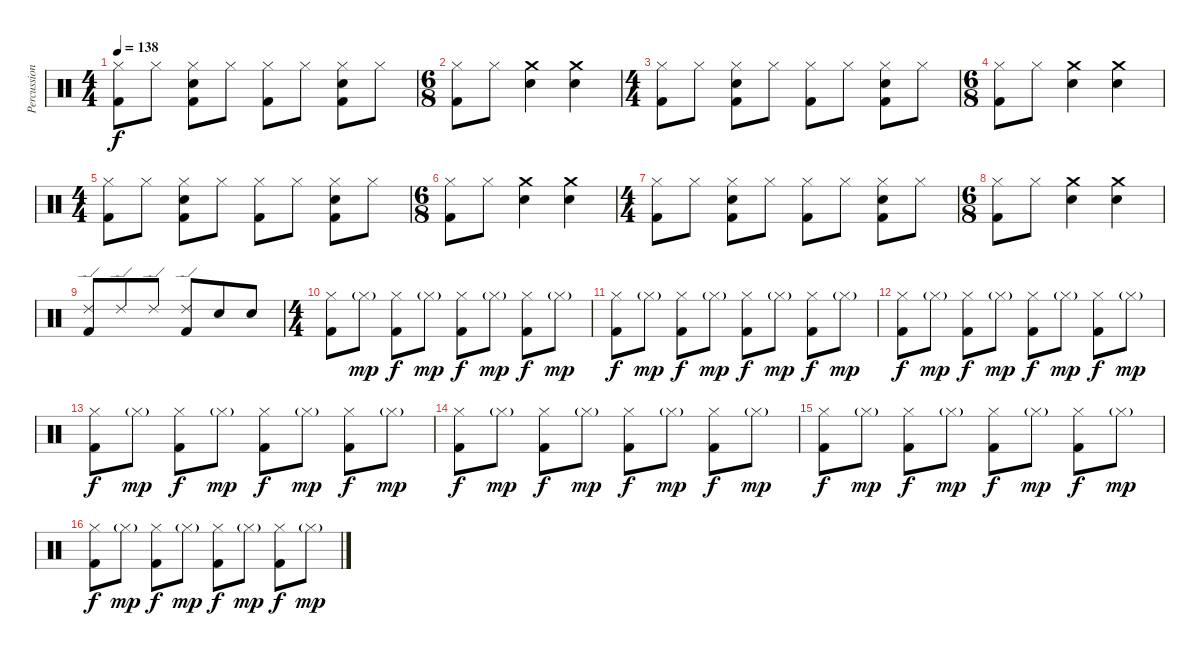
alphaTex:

\track ("Percussion" "Percussion") {instrument percussion}
\staff {score}
\articulation defaults
\ts (4 4)
\tempo 138
\clef neutral
\ks c
("Hi-Hat (closed)" "Kick (hit) 2").8{dy f} "Hi-Hat (closed)".8 ("Hi-Hat (closed)" "Snare (hit) 2" "Kick (hit) 2").8 "Hi-Hat (closed)".8 ("Hi-Hat (closed)" "Kick (hit) 2").8 "Hi-Hat (closed)".8 ("Hi-Hat (closed)" "Snare (hit) 2" "Kick (hit) 2").8 "Hi-Hat (closed)".8 |
\ts (6 8)
("Hi-Hat (closed)" "Kick (hit) 2").8 "Hi-Hat (closed)".8 ("Crash medium (hit)" "Snare (hit) 2").4 ("Crash medium (hit)" "Snare (hit) 2").4 |
\ts (4 4)
("Hi-Hat (closed)" "Kick (hit) 2").8 "Hi-Hat (closed)".8 ("Hi-Hat (closed)" "Snare (hit) 2" "Kick (hit) 2").8 "Hi-Hat (closed)".8 ("Hi-Hat (closed)" "Kick (hit) 2").8 "Hi-Hat (closed)".8 ("Hi-Hat (closed)" "Snare (hit) 2" "Kick (hit) 2").8 "Hi-Hat (closed)".8 |
\ts (6 8)
("Hi-Hat (closed)" "Kick (hit) 2").8 "Hi-Hat (closed)".8 ("Crash medium (hit)" "Snare (hit) 2").4 ("Crash medium (hit)" "Snare (hit) 2").4 |
\ts (4 4)
("Hi-Hat (closed)" "Kick (hit) 2").8 "Hi-Hat (closed)".8 ("Hi-Hat (closed)" "Snare (hit) 2" "Kick (hit) 2").8 "Hi-Hat (closed)".8 ("Hi-Hat (closed)" "Kick (hit) 2").8 "Hi-Hat (closed)".8 ("Hi-Hat (closed)" "Snare (hit) 2" "Kick (hit) 2").8 "Hi-Hat (closed)".8 |
\ts (6 8)
("Hi-Hat (closed)" "Kick (hit) 2").8 "Hi-Hat (closed)".8 ("Crash medium (hit)" "Snare (hit) 2").4 ("Crash medium (hit)" "Snare (hit) 2").4 |
\ts (4 4)
("Hi-Hat (closed)" "Kick (hit) 2").8 "Hi-Hat (closed)".8 ("Hi-Hat (closed)" "Snare (hit) 2" "Kick (hit) 2").8 "Hi-Hat (closed)".8 ("Hi-Hat (closed)" "Kick (hit) 2").8 "Hi-Hat (closed)".8 ("Hi-Hat (closed)" "Snare (hit) 2" "Kick (hit) 2").8 "Hi-Hat (closed)".8 |
\ts (6 8)
("Hi-Hat (closed)" "Kick (hit) 2").8 "Hi-Hat (closed)".8 ("Crash medium (hit)" "Snare (hit) 2").4 ("Crash medium (hit)" "Snare (hit) 2").4 |
("Ride (edge) 2" "Kick (hit) 2").8 "Ride (edge) 2".8 "Ride (edge) 2".8 ("Ride (edge) 2" "Kick (hit) 2").8 "Snare (hit) 2".8 "Snare (hit) 2".8 |
\ts (4 4)
("Hi-Hat (closed)" "Kick (hit) 2").8 "Hi-Hat (closed)"{g}.8{dy mp} ("Hi-Hat (closed)" "Kick (hit) 2").8{dy f} "Hi-Hat (closed)"{g}.8{dy mp} ("Hi-Hat (closed)" "Kick (hit) 2").8{dy f} "Hi-Hat (closed)"{g}.8{dy mp} ("Hi-Hat (closed)" "Kick (hit) 2").8{dy f} "Hi-Hat (closed)"{g}.8{dy mp} |
("Hi-Hat (closed)" "Kick (hit) 2").8{dy f} "Hi-Hat (closed)"{g}.8{dy mp} ("Hi-Hat (closed)" "Kick (hit) 2").8{dy f} "Hi-Hat (closed)"{g}.8{dy mp} ("Hi-Hat (closed)" "Kick (hit) 2").8{dy f} "Hi-Hat (closed)"{g}.8{dy mp} ("Hi-Hat (closed)" "Kick (hit) 2").8{dy f} "Hi-Hat (closed)"{g}.8{dy mp} |
("Hi-Hat (closed)" "Kick (hit) 2").8{dy f} "Hi-Hat (closed)"{g}.8{dy mp} ("Hi-Hat (closed)" "Kick (hit) 2").8{dy f} "Hi-Hat (closed)"{g}.8{dy mp} ("Hi-Hat (closed)" "Kick (hit) 2").8{dy f} "Hi-Hat (closed)"{g}.8{dy mp} ("Hi-Hat (closed)" "Kick (hit) 2").8{dy f} "Hi-Hat (closed)"{g}.8{dy mp} |
("Hi-Hat (closed)" "Kick (hit) 2").8{dy f} "Hi-Hat (closed)"{g}.8{dy mp} ("Hi-Hat (closed)" "Kick (hit) 2").8{dy f} "Hi-Hat (closed)"{g}.8{dy mp} ("Hi-Hat (closed)" "Kick (hit) 2").8{dy f} "Hi-Hat (closed)"{g}.8{dy mp} ("Hi-Hat (closed)" "Kick (hit) 2").8{dy f} "Hi-Hat (closed)"{g}.8{dy mp} |
("Hi-Hat (closed)" "Kick (hit) 2").8{dy f} "Hi-Hat (closed)"{g}.8{dy mp} ("Hi-Hat (closed)" "Kick (hit) 2").8{dy f} "Hi-Hat (closed)"{g}.8{dy mp} ("Hi-Hat (closed)" "Kick (hit) 2").8{dy f} "Hi-Hat (closed)"{g}.8{dy mp} ("Hi-Hat (closed)" "Kick (hit) 2").8{dy f} "Hi-Hat (closed)"{g}.8{dy mp} |
("Hi-Hat (closed)" "Kick (hit) 2").8{dy f} "Hi-Hat (closed)"{g}.8{dy mp} ("Hi-Hat (closed)" "Kick (hit) 2").8{dy f} "Hi-Hat (closed)"{g}.8{dy mp} ("Hi-Hat (closed)" "Kick (hit) 2").8{dy f} "Hi-Hat (closed)"{g}.8{dy mp} ("Hi-Hat (closed)" "Kick (hit) 2").8{dy f} "Hi-Hat (closed)"{g}.8{dy mp} |
("Hi-Hat (closed)" "Kick (hit) 2").8{dy f} "Hi-Hat (closed)"{g}.8{dy mp} ("Hi-Hat (closed)" "Kick (hit) 2").8{dy f} "Hi-Hat (closed)"{g}.8{dy mp} ("Hi-Hat (closed)" "Kick (hit) 2").8{dy f} "Hi-Hat (closed)"{g}.8{dy mp} ("Hi-Hat (closed)" "Kick (hit) 2").8{dy f} "Hi-Hat (closed)"{g}.8{dy mp}
